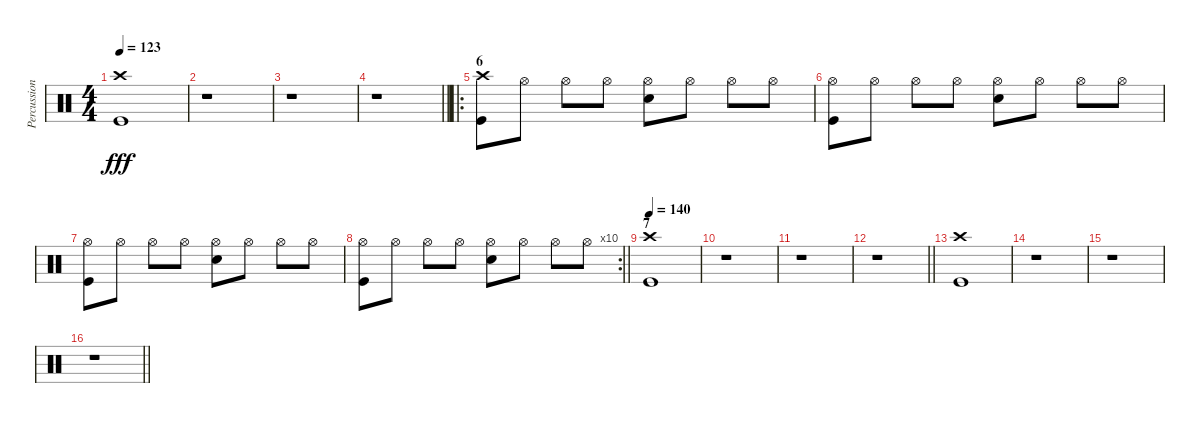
\track ("Percussion" "Percussion") {instrument percussion}
\staff {score}
\articulation defaults
\ts (4 4)
\section ("" "")
\tempo 123
\clef neutral
\ks c
("Crash high (hit)" "Kick (hit)").1{dy fff} |
r.1 |
r.1 |
\barLineRight lightlight
r.1 |
\ro
\section ("" "6")
("Crash high (hit)" "Kick (hit)").8 "Hi-Hat (open)".8 "Hi-Hat (open)".8 "Hi-Hat (open)".8 ("Hi-Hat (open)" "Snare (hit) 2").8 "Hi-Hat (open)".8 "Hi-Hat (open)".8 "Hi-Hat (open)".8 |
("Hi-Hat (open)" "Kick (hit)").8 "Hi-Hat (open)".8 "Hi-Hat (open)".8 "Hi-Hat (open)".8 ("Hi-Hat (open)" "Snare (hit) 2").8 "Hi-Hat (open)".8 "Hi-Hat (open)".8 "Hi-Hat (open)".8 |
("Hi-Hat (open)" "Kick (hit)").8 "Hi-Hat (open)".8 "Hi-Hat (open)".8 "Hi-Hat (open)".8 ("Hi-Hat (open)" "Snare (hit) 2").8 "Hi-Hat (open)".8 "Hi-Hat (open)".8 "Hi-Hat (open)".8 |
\rc 10
\barLineRight lightlight
("Hi-Hat (open)" "Kick (hit)").8 "Hi-Hat (open)".8 "Hi-Hat (open)".8 "Hi-Hat (open)".8 ("Hi-Hat (open)" "Snare (hit) 2").8 "Hi-Hat (open)".8 "Hi-Hat (open)".8 "Hi-Hat (open)".8 |
\section ("" "7")
\tempo 140
("Crash high (hit)" "Kick (hit)").1 |
r.1 |
r.1 |
\barLineRight lightlight
r.1 |
("Crash high (hit)" "Kick (hit)").1 |
r.1 |
r.1 |
\barLineRight lightlight
r.1
